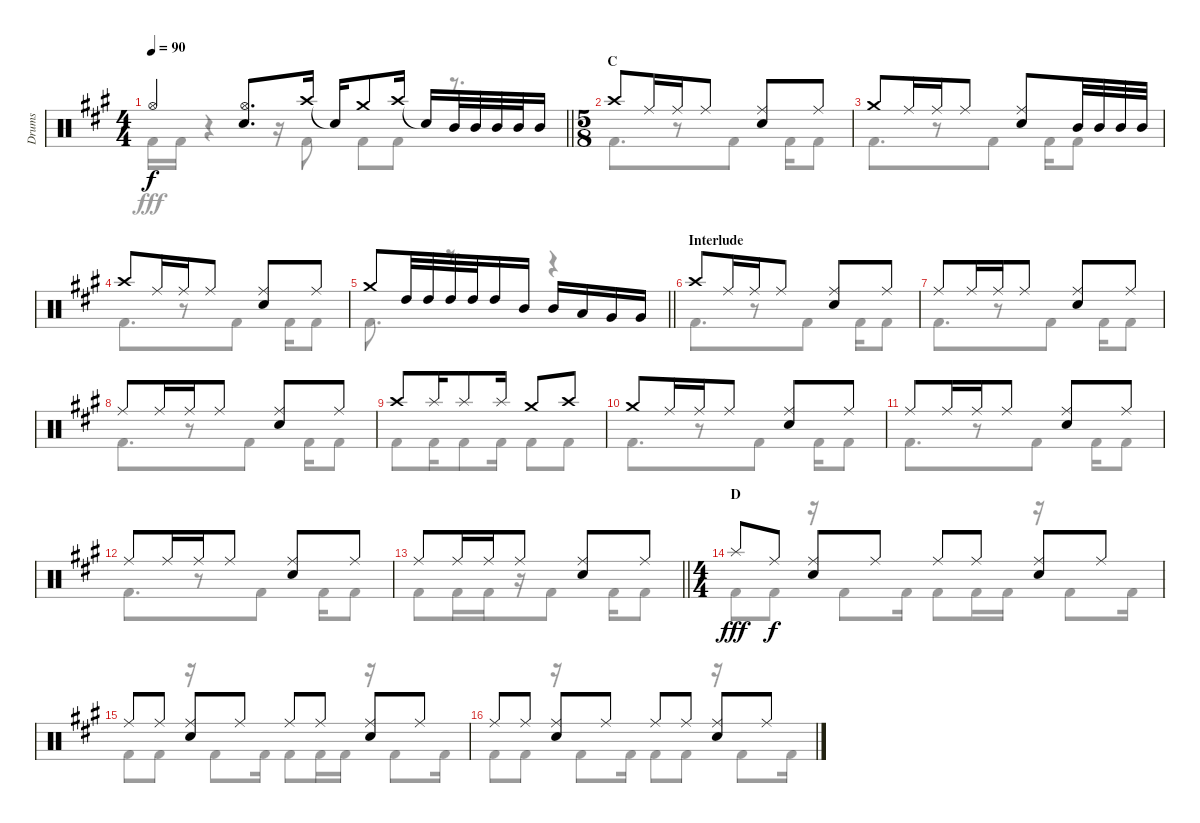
\track ("Drums" "Drums") {instrument percussion}
\staff {score}
\articulation defaults
\voice
\ts (4 4)
\tempo 90
\clef neutral
\barLineRight lightlight
\ks a "Hi-Hat (open)".4{dy f}
("Hi-Hat (open)" "Snare (hit) 2").8{d} "Crash high (hit)".16 "Snare (hit)"{t}.16 "Crash medium (hit)".8 "Crash high (hit)".16 "Snare (hit)"{t}.16 "Mid Tom (hit)".32 "Mid Tom (hit)".32 "Mid Tom (hit)".32 "Mid Tom (hit)".32 "Mid Tom (hit)".16 |
\ts (5 8)
\section ("" "C")
"Crash high (hit)".8 "Ride (middle)".16 "Ride (middle)".16 "Ride (middle)".8 ("Ride (middle)" "Snare (hit) 2").8 "Ride (middle)".8 |
"Crash medium (hit)".8 "Ride (middle)".16 "Ride (middle)".16 "Ride (middle)".8 ("Ride (middle)" "Snare (hit) 2").8 "Mid Tom (hit)".32 "Mid Tom (hit)".32 "Mid Tom (hit)".32 "Mid Tom (hit)".32 |
"Crash high (hit)".8 "Ride (middle)".16 "Ride (middle)".16 "Ride (middle)".8 ("Ride (middle)" "Snare (hit) 2").8 "Ride (middle)".8 |
\barLineRight lightlight "Crash medium (hit)".8 "High Tom (hit)".32 "High Tom (hit)".32 "High Tom (hit)".32 "High Tom (hit)".32 "High Tom (hit)".16 "Mid Tom (hit)".16 "Mid Tom (hit)".16 "Low Tom (hit)".16 "Very Low Tom (hit)".16 "Very Low Tom (hit)".16
|
\section ("" "Interlude")
"Crash high (hit)".8 "Ride (middle)".16 "Ride (middle)".16 "Ride (middle)".8 ("Ride (middle)" "Snare (hit) 2").8 "Ride (middle)".8 |
"Ride (middle)".8 "Ride (middle)".16 "Ride (middle)".16 "Ride (middle)".8 ("Ride (middle)" "Snare (hit) 2").8 "Ride (middle)".8 |
"Ride (middle)".8 "Ride (middle)".16 "Ride (middle)".16 "Ride (middle)".8 ("Ride (middle)" "Snare (hit) 2").8 "Ride (middle)".8 |
"Crash high (hit)".8 "Splash (hit)".16 "Splash (hit)".8 "Splash (hit)".16 "Crash medium (hit)".8 "Crash high (hit)".8 |
"Crash medium (hit)".8 "Ride (middle)".16 "Ride (middle)".16 "Ride (middle)".8 ("Ride (middle)" "Snare (hit) 2").8 "Ride (middle)".8 |
"Ride (middle)".8 "Ride (middle)".16 "Ride (middle)".16 "Ride (middle)".8 ("Ride (middle)" "Snare (hit) 2").8 "Ride (middle)".8 |
"Ride (middle)".8 "Ride (middle)".16 "Ride (middle)".16 "Ride (middle)".8 ("Ride (middle)" "Snare (hit) 2").8 "Ride (middle)".8 |
\barLineRight lightlight "Ride (middle)".8 "Ride (middle)".16 "Ride (middle)".16 "Ride (middle)".8
("Ride (middle)" "Snare (hit) 2").8 "Ride (middle)".8 |
\ts (4 4)
\section ("" "D")
"Splash (hit)".8{dy fff} "Ride (middle)".8{dy f} ("Ride (middle)" "Snare (hit) 2").8 "Ride (middle)".8 "Ride (middle)".8 "Ride (middle)".8 ("Ride (middle)" "Snare (hit) 2").8 "Ride (middle)".8 |
"Ride (middle)".8 "Ride (middle)".8 ("Ride (middle)" "Snare (hit) 2").8 "Ride (middle)".8 "Ride (middle)".8 "Ride (middle)".8 ("Ride (middle)" "Snare (hit) 2").8 "Ride (middle)".8 |
"Ride (middle)".8 "Ride (middle)".8 ("Ride (middle)" "Snare (hit) 2").8 "Ride (middle)".8 "Ride (middle)".8 "Ride (middle)".8 ("Ride (middle)" "Snare (hit) 2").8 "Ride (middle)".8
\voice
\clef neutral
\ottava regular
\simile none
\barLineRight lightlight
\ks a "Kick (hit) 2".16{dy fff} "Kick (hit) 2".16
r.4 r.16 "Kick (hit) 2".8 "Kick (hit) 2".8 "Kick (hit) 2".8 r.8{d} |
"Kick (hit) 2".8{d} r.8 "Kick (hit) 2".8 "Kick (hit) 2".16 "Kick (hit) 2".8 |
"Kick (hit) 2".8{d} r.8 "Kick (hit) 2".8 "Kick (hit) 2".16 "Kick (hit) 2".8 |
"Kick (hit) 2".8{d} r.8 "Kick (hit) 2".8 "Kick (hit) 2".16 "Kick (hit) 2".8 |
\barLineRight lightlight "Kick (hit) 2".8{d}
r.8{d} r.4 |
"Kick (hit) 2".8{d} r.8 "Kick (hit) 2".8 "Kick (hit) 2".16 "Kick (hit) 2".8 |
"Kick (hit) 2".8{d} r.8 "Kick (hit) 2".8 "Kick (hit) 2".16 "Kick (hit) 2".8 |
"Kick (hit) 2".8{d} r.8 "Kick (hit) 2".8 "Kick (hit) 2".16 "Kick (hit) 2".8 |
"Kick (hit) 2".8 "Kick (hit) 2".16 "Kick (hit) 2".8 "Kick (hit) 2".16 "Kick (hit) 2".8 "Kick (hit) 2".8 |
"Kick (hit) 2".8{d} r.8 "Kick (hit) 2".8 "Kick (hit) 2".16 "Kick (hit) 2".8 |
"Kick (hit) 2".8{d} r.8 "Kick (hit) 2".8 "Kick (hit) 2".16 "Kick (hit) 2".8 |
"Kick (hit) 2".8{d} r.8 "Kick (hit) 2".8 "Kick (hit) 2".16 "Kick (hit) 2".8 |
\barLineRight lightlight "Kick (hit) 2".8 "Kick (hit) 2".16 "Kick (hit) 2".16
r.16 "Kick (hit) 2".8 "Kick (hit) 2".16 "Kick (hit) 2".8 |
"Kick (hit) 2".8 "Kick (hit) 2".8 r.16 "Kick (hit) 2".8 "Kick (hit) 2".16 "Kick (hit) 2".8 "Kick (hit) 2".16 "Kick (hit) 2".16 r.16 "Kick (hit) 2".8 "Kick (hit) 2".16 |
"Kick (hit) 2".8 "Kick (hit) 2".8 r.16 "Kick (hit) 2".8 "Kick (hit) 2".16 "Kick (hit) 2".8 "Kick (hit) 2".16 "Kick (hit) 2".16 r.16 "Kick (hit) 2".8 "Kick (hit) 2".16 |
"Kick (hit) 2".8 "Kick (hit) 2".8 r.16 "Kick (hit) 2".8 "Kick (hit) 2".16 "Kick (hit) 2".8 "Kick (hit) 2".8 r.16 "Kick (hit) 2".8 "Kick (hit) 2".16
